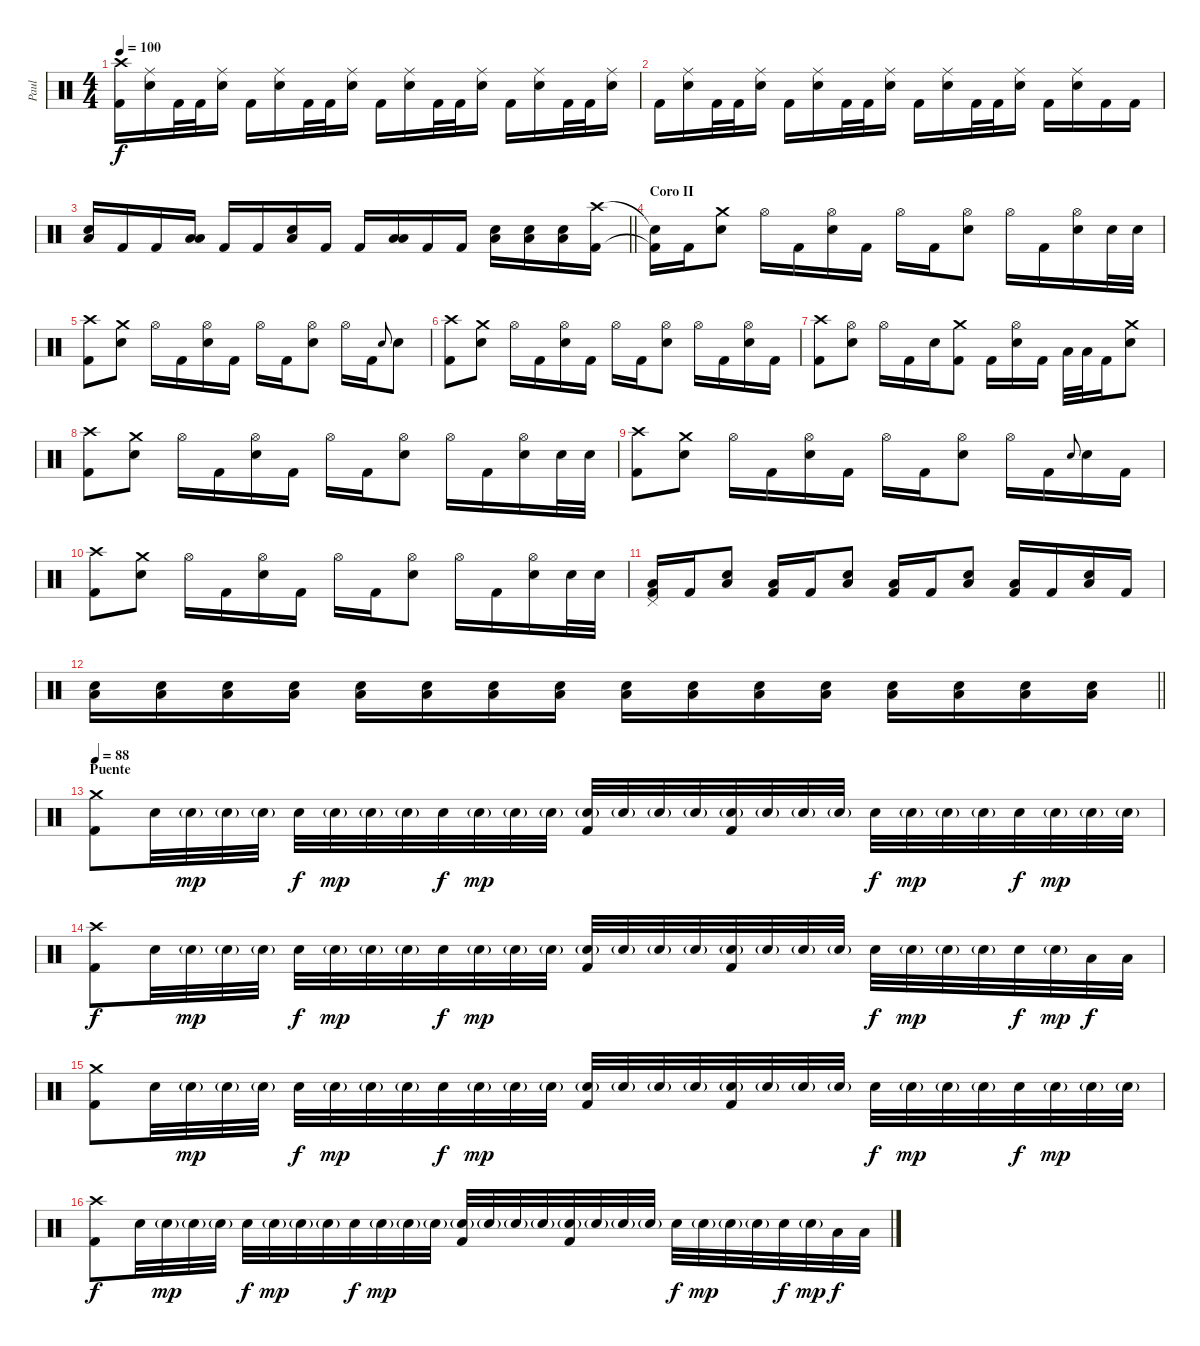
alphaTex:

\track ("Paul" "Paul") {instrument percussion}
\staff
\articulation defaults
\ts (4 4)
\tempo 100
\clef neutral
\ks c
("Crash high (hit)" "Kick (hit) 2").16{dy f} ("Ride (middle)" "Electric Snare (hit)").16 "Kick (hit) 2".32 "Kick (hit) 2".32 ("Ride (middle)" "Electric Snare (hit)").16 "Kick (hit) 2".16 ("Ride (middle)" "Electric Snare (hit)").16 "Kick (hit) 2".32 "Kick (hit) 2".32 ("Ride (middle)" "Electric Snare (hit)").16 "Kick (hit) 2".16 ("Ride (middle)" "Electric Snare (hit)").16 "Kick (hit) 2".32 "Kick (hit) 2".32 ("Ride (middle)" "Electric Snare (hit)").16 "Kick (hit) 2".16 ("Ride (middle)" "Electric Snare (hit)").16 "Kick (hit) 2".32 "Kick (hit) 2".32 ("Ride (middle)" "Electric Snare (hit)").16 |
"Kick (hit) 2".16 ("Ride (middle)" "Electric Snare (hit)").16 "Kick (hit) 2".32 "Kick (hit) 2".32 ("Ride (middle)" "Electric Snare (hit)").16 "Kick (hit) 2".16 ("Ride (middle)" "Electric Snare (hit)").16 "Kick (hit) 2".32 "Kick (hit) 2".32 ("Ride (middle)" "Electric Snare (hit)").16 "Kick (hit) 2".16 ("Ride (middle)" "Electric Snare (hit)").16 "Kick (hit) 2".32 "Kick (hit) 2".32 ("Ride (middle)" "Electric Snare (hit)").16 "Kick (hit) 2".16 ("Ride (middle)" "Electric Snare (hit)").16 "Kick (hit) 2".16 "Kick (hit) 2".16 |
\barLineRight lightlight
("Electric Snare (hit)" "Low Floor Tom (hit)").16 "Kick (hit) 2".16 "Kick (hit) 2".16 ("Low Tom (hit)" "Low Floor Tom (hit)").16 "Kick (hit) 2".16 "Kick (hit) 2".16 ("Electric Snare (hit)" "Low Floor Tom (hit)").16 "Kick (hit) 2".16 "Kick (hit) 2".16 ("Low Tom (hit)" "Low Floor Tom (hit)").16 "Kick (hit) 2".16 "Kick (hit) 2".16 ("Electric Snare (hit)" "Low Floor Tom (hit)").16 ("Electric Snare (hit)" "Low Floor Tom (hit)").16 ("Electric Snare (hit)" "Low Floor Tom (hit)").16 ("Crash high (hit)" "Kick (hit) 2").16 |
\section ("" "Coro II")
("Snare (hit)"{t} "Kick (hit) 2"{t}).16 "Kick (hit) 2".16 ("Crash medium (hit)" "Electric Snare (hit)").8 "Hi-Hat (open)".16 "Kick (hit) 2".16 ("Hi-Hat (open)" "Electric Snare (hit)").16 "Kick (hit) 2".16 "Hi-Hat (open)".16 "Kick (hit) 2".16 ("Hi-Hat (open)" "Electric Snare (hit)").8 "Hi-Hat (open)".16 "Kick (hit) 2".16 ("Hi-Hat (open)" "Electric Snare (hit)").16 "Electric Snare (hit)".32 "Electric Snare (hit)".32 |
("Crash high (hit)" "Kick (hit) 2").8 ("Crash medium (hit)" "Electric Snare (hit)").8 "Hi-Hat (open)".16 "Kick (hit) 2".16 ("Hi-Hat (open)" "Electric Snare (hit)").16 "Kick (hit) 2".16 "Hi-Hat (open)".16 "Kick (hit) 2".16 ("Hi-Hat (open)" "Electric Snare (hit)").8 "Hi-Hat (open)".16 "Kick (hit) 2".16 "Electric Snare (hit)".8{gr onbeat} "Electric Snare (hit)".8 |
("Crash high (hit)" "Kick (hit) 2").8 ("Crash medium (hit)" "Electric Snare (hit)").8 "Hi-Hat (open)".16 "Kick (hit) 2".16 ("Hi-Hat (open)" "Electric Snare (hit)").16 "Kick (hit) 2".16 "Hi-Hat (open)".16 "Kick (hit) 2".16 ("Hi-Hat (open)" "Electric Snare (hit)").8 "Hi-Hat (open)".16 "Kick (hit) 2".16 ("Hi-Hat (open)" "Electric Snare (hit)").16 "Kick (hit) 2".16 |
("Crash high (hit)" "Kick (hit) 2").8 ("Hi-Hat (open)" "Electric Snare (hit)").8 "Hi-Hat (open)".16 "Kick (hit) 2".16 "Electric Snare (hit)".16 ("Crash medium (hit)" "Kick (hit) 2").8 "Kick (hit) 2".16 ("Hi-Hat (open)" "Electric Snare (hit)").16 "Kick (hit) 2".16 "Low Tom (hit)".32 "Low Tom (hit)".32 "Kick (hit) 2".16 ("Crash medium (hit)" "Electric Snare (hit)").8 |
("Crash high (hit)" "Kick (hit) 2").8 ("Crash medium (hit)" "Electric Snare (hit)").8 "Hi-Hat (open)".16 "Kick (hit) 2".16 ("Hi-Hat (open)" "Electric Snare (hit)").16 "Kick (hit) 2".16 "Hi-Hat (open)".16 "Kick (hit) 2".16 ("Hi-Hat (open)" "Electric Snare (hit)").8 "Hi-Hat (open)".16 "Kick (hit) 2".16 ("Hi-Hat (open)" "Electric Snare (hit)").16 "Electric Snare (hit)".32 "Electric Snare (hit)".32 |
("Crash high (hit)" "Kick (hit) 2").8 ("Crash medium (hit)" "Electric Snare (hit)").8 "Hi-Hat (open)".16 "Kick (hit) 2".16 ("Hi-Hat (open)" "Electric Snare (hit)").16 "Kick (hit) 2".16 "Hi-Hat (open)".16 "Kick (hit) 2".16 ("Hi-Hat (open)" "Electric Snare (hit)").8 "Hi-Hat (open)".16 "Kick (hit) 2".16 "Electric Snare (hit)".8{gr onbeat} "Electric Snare (hit)".16 "Kick (hit) 2".16 |
("Crash high (hit)" "Kick (hit) 2").8 ("Crash medium (hit)" "Electric Snare (hit)").8 "Hi-Hat (open)".16 "Kick (hit) 2".16 ("Hi-Hat (open)" "Electric Snare (hit)").16 "Kick (hit) 2".16 "Hi-Hat (open)".16 "Kick (hit) 2".16 ("Hi-Hat (open)" "Electric Snare (hit)").8 "Hi-Hat (open)".16 "Kick (hit) 2".16 ("Hi-Hat (open)" "Electric Snare (hit)").16 "Electric Snare (hit)".32 "Electric Snare (hit)".32 |
("Pedal Hi-Hat (hit)" "Low Floor Tom (hit)" "Kick (hit) 2").16 "Kick (hit) 2".16 ("Electric Snare (hit)" "Low Floor Tom (hit)").8 ("Low Floor Tom (hit)" "Kick (hit) 2").16 "Kick (hit) 2".16 ("Electric Snare (hit)" "Low Floor Tom (hit)").8 ("Low Floor Tom (hit)" "Kick (hit) 2").16 "Kick (hit) 2".16 ("Electric Snare (hit)" "Low Floor Tom (hit)").8 ("Low Floor Tom (hit)" "Kick (hit) 2").16 "Kick (hit) 2".16 ("Electric Snare (hit)" "Low Floor Tom (hit)").16 "Kick (hit) 2".16 |
\barLineRight lightlight
("Electric Snare (hit)" "Low Floor Tom (hit)").16 ("Electric Snare (hit)" "Low Floor Tom (hit)").16 ("Electric Snare (hit)" "Low Floor Tom (hit)").16 ("Electric Snare (hit)" "Low Floor Tom (hit)").16 ("Electric Snare (hit)" "Low Floor Tom (hit)").16 ("Electric Snare (hit)" "Low Floor Tom (hit)").16 ("Electric Snare (hit)" "Low Floor Tom (hit)").16 ("Electric Snare (hit)" "Low Floor Tom (hit)").16 ("Electric Snare (hit)" "Low Floor Tom (hit)").16 ("Electric Snare (hit)" "Low Floor Tom (hit)").16 ("Electric Snare (hit)" "Low Floor Tom (hit)").16 ("Electric Snare (hit)" "Low Floor Tom (hit)").16 ("Electric Snare (hit)" "Low Floor Tom (hit)").16 ("Electric Snare (hit)" "Low Floor Tom (hit)").16 ("Electric Snare (hit)" "Low Floor Tom (hit)").16 ("Electric Snare (hit)" "Low Floor Tom (hit)").16 |
\section ("" "Puente")
\tempo 88
("Crash medium (hit)" "Kick (hit) 2").8 "Electric Snare (hit)".32 "Electric Snare (hit)"{g}.32{dy mp} "Electric Snare (hit)"{g}.32 "Electric Snare (hit)"{g}.32 "Electric Snare (hit)".32{dy f} "Electric Snare (hit)"{g}.32{dy mp} "Electric Snare (hit)"{g}.32 "Electric Snare (hit)"{g}.32 "Electric Snare (hit)".32{dy f} "Electric Snare (hit)"{g}.32{dy mp} "Electric Snare (hit)"{g}.32 "Electric Snare (hit)"{g}.32 ("Electric Snare (hit)"{g} "Kick (hit) 2").32 "Electric Snare (hit)"{g}.32 "Electric Snare (hit)"{g}.32 "Electric Snare (hit)"{g}.32 ("Electric Snare (hit)"{g} "Kick (hit) 2").32 "Electric Snare (hit)"{g}.32 "Electric Snare (hit)"{g}.32 "Electric Snare (hit)"{g}.32 "Electric Snare (hit)".32{dy f} "Electric Snare (hit)"{g}.32{dy mp} "Electric Snare (hit)"{g}.32 "Electric Snare (hit)"{g}.32 "Electric Snare (hit)".32{dy f} "Electric Snare (hit)"{g}.32{dy mp} "Electric Snare (hit)"{g}.32 "Electric Snare (hit)"{g}.32 |
("Crash high (hit)" "Kick (hit) 2").8{dy f} "Electric Snare (hit)".32 "Electric Snare (hit)"{g}.32{dy mp} "Electric Snare (hit)"{g}.32 "Electric Snare (hit)"{g}.32 "Electric Snare (hit)".32{dy f} "Electric Snare (hit)"{g}.32{dy mp} "Electric Snare (hit)"{g}.32 "Electric Snare (hit)"{g}.32 "Electric Snare (hit)".32{dy f} "Electric Snare (hit)"{g}.32{dy mp} "Electric Snare (hit)"{g}.32 "Electric Snare (hit)"{g}.32 ("Electric Snare (hit)"{g} "Kick (hit) 2").32 "Electric Snare (hit)"{g}.32 "Electric Snare (hit)"{g}.32 "Electric Snare (hit)"{g}.32 ("Electric Snare (hit)"{g} "Kick (hit) 2").32 "Electric Snare (hit)"{g}.32 "Electric Snare (hit)"{g}.32 "Electric Snare (hit)"{g}.32 "Electric Snare (hit)".32{dy f} "Electric Snare (hit)"{g}.32{dy mp} "Electric Snare (hit)"{g}.32 "Electric Snare (hit)"{g}.32 "Electric Snare (hit)".32{dy f} "Electric Snare (hit)"{g}.32{dy mp} "Low Tom (hit)".32{dy f} "Low Tom (hit)".32 |
("Crash medium (hit)" "Kick (hit) 2").8 "Electric Snare (hit)".32 "Electric Snare (hit)"{g}.32{dy mp} "Electric Snare (hit)"{g}.32 "Electric Snare (hit)"{g}.32 "Electric Snare (hit)".32{dy f} "Electric Snare (hit)"{g}.32{dy mp} "Electric Snare (hit)"{g}.32 "Electric Snare (hit)"{g}.32 "Electric Snare (hit)".32{dy f} "Electric Snare (hit)"{g}.32{dy mp} "Electric Snare (hit)"{g}.32 "Electric Snare (hit)"{g}.32 ("Electric Snare (hit)"{g} "Kick (hit) 2").32 "Electric Snare (hit)"{g}.32 "Electric Snare (hit)"{g}.32 "Electric Snare (hit)"{g}.32 ("Electric Snare (hit)"{g} "Kick (hit) 2").32 "Electric Snare (hit)"{g}.32 "Electric Snare (hit)"{g}.32 "Electric Snare (hit)"{g}.32 "Electric Snare (hit)".32{dy f} "Electric Snare (hit)"{g}.32{dy mp} "Electric Snare (hit)"{g}.32 "Electric Snare (hit)"{g}.32 "Electric Snare (hit)".32{dy f} "Electric Snare (hit)"{g}.32{dy mp} "Electric Snare (hit)"{g}.32 "Electric Snare (hit)"{g}.32 |
("Crash high (hit)" "Kick (hit) 2").8{dy f} "Electric Snare (hit)".32 "Electric Snare (hit)"{g}.32{dy mp} "Electric Snare (hit)"{g}.32 "Electric Snare (hit)"{g}.32 "Electric Snare (hit)".32{dy f} "Electric Snare (hit)"{g}.32{dy mp} "Electric Snare (hit)"{g}.32 "Electric Snare (hit)"{g}.32 "Electric Snare (hit)".32{dy f} "Electric Snare (hit)"{g}.32{dy mp} "Electric Snare (hit)"{g}.32 "Electric Snare (hit)"{g}.32 ("Electric Snare (hit)"{g} "Kick (hit) 2").32 "Electric Snare (hit)"{g}.32 "Electric Snare (hit)"{g}.32 "Electric Snare (hit)"{g}.32 ("Electric Snare (hit)"{g} "Kick (hit) 2").32 "Electric Snare (hit)"{g}.32 "Electric Snare (hit)"{g}.32 "Electric Snare (hit)"{g}.32 "Electric Snare (hit)".32{dy f} "Electric Snare (hit)"{g}.32{dy mp} "Electric Snare (hit)"{g}.32 "Electric Snare (hit)"{g}.32 "Electric Snare (hit)".32{dy f} "Electric Snare (hit)"{g}.32{dy mp} "Low Tom (hit)".32{dy f} "Low Tom (hit)".32
